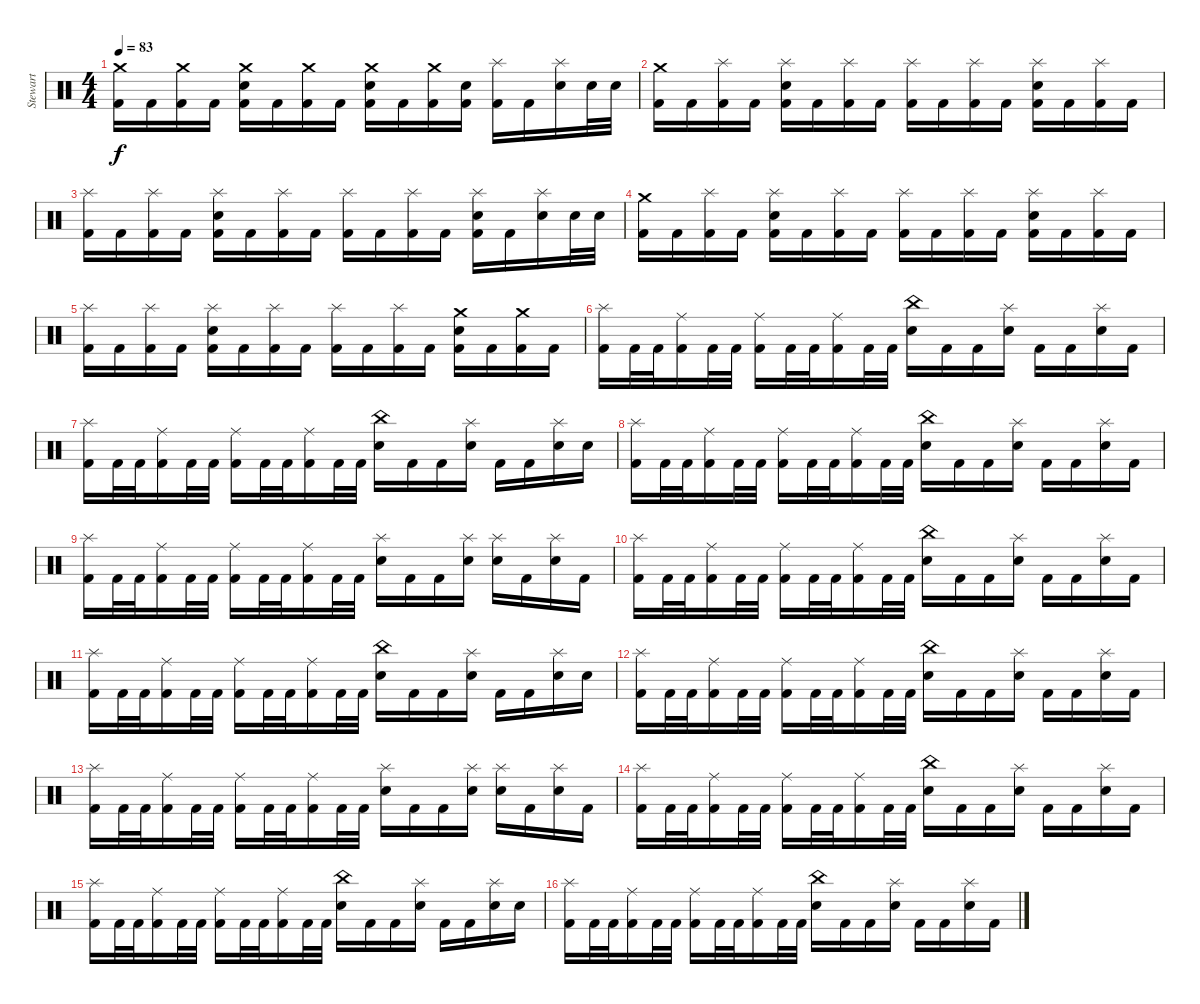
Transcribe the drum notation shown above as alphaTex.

\track ("Stewart" "Stewart") {instrument percussion}
\staff {score}
\articulation defaults
\ts (4 4)
\tempo 83
\clef neutral
\ks c
("Crash medium (hit)" "Kick (hit) 2").16{dy f} "Kick (hit) 2".16 ("Crash medium (hit)" "Kick (hit) 2").16 "Kick (hit) 2".16 ("Crash medium (hit)" "Electric Snare (hit)" "Kick (hit) 2").16 "Kick (hit) 2".16 ("Crash medium (hit)" "Kick (hit) 2").16 "Kick (hit) 2".16 ("Crash medium (hit)" "Electric Snare (hit)" "Kick (hit) 2").16 "Kick (hit) 2".16 ("Crash medium (hit)" "Kick (hit) 2").16 ("Electric Snare (hit)" "Kick (hit) 2").16 ("Splash (hit)" "Kick (hit) 2").16 "Kick (hit) 2".16 ("Splash (hit)" "Electric Snare (hit)").16 "Electric Snare (hit)".32 "Electric Snare (hit)".32 |
("Crash medium (hit)" "Kick (hit) 2").16 "Kick (hit) 2".16 ("Splash (hit)" "Kick (hit) 2").16 "Kick (hit) 2".16 ("Splash (hit)" "Electric Snare (hit)" "Kick (hit) 2").16 "Kick (hit) 2".16 ("Splash (hit)" "Kick (hit) 2").16 "Kick (hit) 2".16 ("Splash (hit)" "Kick (hit) 2").16 "Kick (hit) 2".16 ("Splash (hit)" "Kick (hit) 2").16 "Kick (hit) 2".16 ("Splash (hit)" "Electric Snare (hit)" "Kick (hit) 2").16 "Kick (hit) 2".16 ("Splash (hit)" "Kick (hit) 2").16 "Kick (hit) 2".16 |
("Splash (hit)" "Kick (hit) 2").16 "Kick (hit) 2".16 ("Splash (hit)" "Kick (hit) 2").16 "Kick (hit) 2".16 ("Splash (hit)" "Electric Snare (hit)" "Kick (hit) 2").16 "Kick (hit) 2".16 ("Splash (hit)" "Kick (hit) 2").16 "Kick (hit) 2".16 ("Splash (hit)" "Kick (hit) 2").16 "Kick (hit) 2".16 ("Splash (hit)" "Kick (hit) 2").16 "Kick (hit) 2".16 ("Splash (hit)" "Electric Snare (hit)" "Kick (hit) 2").16 "Kick (hit) 2".16 ("Splash (hit)" "Electric Snare (hit)").16 "Electric Snare (hit)".32 "Electric Snare (hit)".32 |
("Crash medium (hit)" "Kick (hit) 2").16 "Kick (hit) 2".16 ("Splash (hit)" "Kick (hit) 2").16 "Kick (hit) 2".16 ("Splash (hit)" "Electric Snare (hit)" "Kick (hit) 2").16 "Kick (hit) 2".16 ("Splash (hit)" "Kick (hit) 2").16 "Kick (hit) 2".16 ("Splash (hit)" "Kick (hit) 2").16 "Kick (hit) 2".16 ("Splash (hit)" "Kick (hit) 2").16 "Kick (hit) 2".16 ("Splash (hit)" "Electric Snare (hit)" "Kick (hit) 2").16 "Kick (hit) 2".16 ("Splash (hit)" "Kick (hit) 2").16 "Kick (hit) 2".16 |
("Splash (hit)" "Kick (hit) 2").16 "Kick (hit) 2".16 ("Splash (hit)" "Kick (hit) 2").16 "Kick (hit) 2".16 ("Splash (hit)" "Electric Snare (hit)" "Kick (hit) 2").16 "Kick (hit) 2".16 ("Splash (hit)" "Kick (hit) 2").16 "Kick (hit) 2".16 ("Splash (hit)" "Kick (hit) 2").16 "Kick (hit) 2".16 ("Splash (hit)" "Kick (hit) 2").16 "Kick (hit) 2".16 ("Crash medium (hit)" "Electric Snare (hit)" "Kick (hit) 2").16 "Kick (hit) 2".16 ("Crash medium (hit)" "Kick (hit) 2").16 "Kick (hit) 2".16 |
("Splash (hit)" "Kick (hit) 2").16 "Kick (hit) 2".32 "Kick (hit) 2".32 ("Ride (middle)" "Kick (hit) 2").16 "Kick (hit) 2".32 "Kick (hit) 2".32 ("Ride (middle)" "Kick (hit) 2").16 "Kick (hit) 2".32 "Kick (hit) 2".32 ("Ride (middle)" "Kick (hit) 2").16 "Kick (hit) 2".32 "Kick (hit) 2".32 ("China (hit)" "Electric Snare (hit)").16 "Kick (hit) 2".16 "Kick (hit) 2".16 ("Splash (hit)" "Electric Snare (hit)").16 "Kick (hit) 2".16 "Kick (hit) 2".16 ("Splash (hit)" "Electric Snare (hit)").16 "Kick (hit) 2".16 |
("Splash (hit)" "Kick (hit) 2").16 "Kick (hit) 2".32 "Kick (hit) 2".32 ("Ride (middle)" "Kick (hit) 2").16 "Kick (hit) 2".32 "Kick (hit) 2".32 ("Ride (middle)" "Kick (hit) 2").16 "Kick (hit) 2".32 "Kick (hit) 2".32 ("Ride (middle)" "Kick (hit) 2").16 "Kick (hit) 2".32 "Kick (hit) 2".32 ("China (hit)" "Electric Snare (hit)").16 "Kick (hit) 2".16 "Kick (hit) 2".16 ("Splash (hit)" "Electric Snare (hit)").16 "Kick (hit) 2".16 "Kick (hit) 2".16 ("Splash (hit)" "Electric Snare (hit)").16 "Electric Snare (hit)".16 |
("Splash (hit)" "Kick (hit) 2").16 "Kick (hit) 2".32 "Kick (hit) 2".32 ("Ride (middle)" "Kick (hit) 2").16 "Kick (hit) 2".32 "Kick (hit) 2".32 ("Ride (middle)" "Kick (hit) 2").16 "Kick (hit) 2".32 "Kick (hit) 2".32 ("Ride (middle)" "Kick (hit) 2").16 "Kick (hit) 2".32 "Kick (hit) 2".32 ("China (hit)" "Electric Snare (hit)").16 "Kick (hit) 2".16 "Kick (hit) 2".16 ("Splash (hit)" "Electric Snare (hit)").16 "Kick (hit) 2".16 "Kick (hit) 2".16 ("Splash (hit)" "Electric Snare (hit)").16 "Kick (hit) 2".16 |
("Splash (hit)" "Kick (hit) 2").16 "Kick (hit) 2".32 "Kick (hit) 2".32 ("Ride (middle)" "Kick (hit) 2").16 "Kick (hit) 2".32 "Kick (hit) 2".32 ("Ride (middle)" "Kick (hit) 2").16 "Kick (hit) 2".32 "Kick (hit) 2".32 ("Ride (middle)" "Kick (hit) 2").16 "Kick (hit) 2".32 "Kick (hit) 2".32 ("Splash (hit)" "Electric Snare (hit)").16 "Kick (hit) 2".16 "Kick (hit) 2".16 ("Splash (hit)" "Electric Snare (hit)").16 ("Splash (hit)" "Electric Snare (hit)").16 "Kick (hit) 2".16 ("Splash (hit)" "Electric Snare (hit)").16 "Kick (hit) 2".16 |
("Splash (hit)" "Kick (hit) 2").16 "Kick (hit) 2".32 "Kick (hit) 2".32 ("Ride (middle)" "Kick (hit) 2").16 "Kick (hit) 2".32 "Kick (hit) 2".32 ("Ride (middle)" "Kick (hit) 2").16 "Kick (hit) 2".32 "Kick (hit) 2".32 ("Ride (middle)" "Kick (hit) 2").16 "Kick (hit) 2".32 "Kick (hit) 2".32 ("China (hit)" "Electric Snare (hit)").16 "Kick (hit) 2".16 "Kick (hit) 2".16 ("Splash (hit)" "Electric Snare (hit)").16 "Kick (hit) 2".16 "Kick (hit) 2".16 ("Splash (hit)" "Electric Snare (hit)").16 "Kick (hit) 2".16 |
("Splash (hit)" "Kick (hit) 2").16 "Kick (hit) 2".32 "Kick (hit) 2".32 ("Ride (middle)" "Kick (hit) 2").16 "Kick (hit) 2".32 "Kick (hit) 2".32 ("Ride (middle)" "Kick (hit) 2").16 "Kick (hit) 2".32 "Kick (hit) 2".32 ("Ride (middle)" "Kick (hit) 2").16 "Kick (hit) 2".32 "Kick (hit) 2".32 ("China (hit)" "Electric Snare (hit)").16 "Kick (hit) 2".16 "Kick (hit) 2".16 ("Splash (hit)" "Electric Snare (hit)").16 "Kick (hit) 2".16 "Kick (hit) 2".16 ("Splash (hit)" "Electric Snare (hit)").16 "Electric Snare (hit)".16 |
("Splash (hit)" "Kick (hit) 2").16 "Kick (hit) 2".32 "Kick (hit) 2".32 ("Ride (middle)" "Kick (hit) 2").16 "Kick (hit) 2".32 "Kick (hit) 2".32 ("Ride (middle)" "Kick (hit) 2").16 "Kick (hit) 2".32 "Kick (hit) 2".32 ("Ride (middle)" "Kick (hit) 2").16 "Kick (hit) 2".32 "Kick (hit) 2".32 ("China (hit)" "Electric Snare (hit)").16 "Kick (hit) 2".16 "Kick (hit) 2".16 ("Splash (hit)" "Electric Snare (hit)").16 "Kick (hit) 2".16 "Kick (hit) 2".16 ("Splash (hit)" "Electric Snare (hit)").16 "Kick (hit) 2".16 |
("Splash (hit)" "Kick (hit) 2").16 "Kick (hit) 2".32 "Kick (hit) 2".32 ("Ride (middle)" "Kick (hit) 2").16 "Kick (hit) 2".32 "Kick (hit) 2".32 ("Ride (middle)" "Kick (hit) 2").16 "Kick (hit) 2".32 "Kick (hit) 2".32 ("Ride (middle)" "Kick (hit) 2").16 "Kick (hit) 2".32 "Kick (hit) 2".32 ("Splash (hit)" "Electric Snare (hit)").16 "Kick (hit) 2".16 "Kick (hit) 2".16 ("Splash (hit)" "Electric Snare (hit)").16 ("Splash (hit)" "Electric Snare (hit)").16 "Kick (hit) 2".16 ("Splash (hit)" "Electric Snare (hit)").16 "Kick (hit) 2".16 |
("Splash (hit)" "Kick (hit) 2").16 "Kick (hit) 2".32 "Kick (hit) 2".32 ("Ride (middle)" "Kick (hit) 2").16 "Kick (hit) 2".32 "Kick (hit) 2".32 ("Ride (middle)" "Kick (hit) 2").16 "Kick (hit) 2".32 "Kick (hit) 2".32 ("Ride (middle)" "Kick (hit) 2").16 "Kick (hit) 2".32 "Kick (hit) 2".32 ("China (hit)" "Electric Snare (hit)").16 "Kick (hit) 2".16 "Kick (hit) 2".16 ("Splash (hit)" "Electric Snare (hit)").16 "Kick (hit) 2".16 "Kick (hit) 2".16 ("Splash (hit)" "Electric Snare (hit)").16 "Kick (hit) 2".16 |
("Splash (hit)" "Kick (hit) 2").16 "Kick (hit) 2".32 "Kick (hit) 2".32 ("Ride (middle)" "Kick (hit) 2").16 "Kick (hit) 2".32 "Kick (hit) 2".32 ("Ride (middle)" "Kick (hit) 2").16 "Kick (hit) 2".32 "Kick (hit) 2".32 ("Ride (middle)" "Kick (hit) 2").16 "Kick (hit) 2".32 "Kick (hit) 2".32 ("China (hit)" "Electric Snare (hit)").16 "Kick (hit) 2".16 "Kick (hit) 2".16 ("Splash (hit)" "Electric Snare (hit)").16 "Kick (hit) 2".16 "Kick (hit) 2".16 ("Splash (hit)" "Electric Snare (hit)").16 "Electric Snare (hit)".16 |
("Splash (hit)" "Kick (hit) 2").16 "Kick (hit) 2".32 "Kick (hit) 2".32 ("Ride (middle)" "Kick (hit) 2").16 "Kick (hit) 2".32 "Kick (hit) 2".32 ("Ride (middle)" "Kick (hit) 2").16 "Kick (hit) 2".32 "Kick (hit) 2".32 ("Ride (middle)" "Kick (hit) 2").16 "Kick (hit) 2".32 "Kick (hit) 2".32 ("China (hit)" "Electric Snare (hit)").16 "Kick (hit) 2".16 "Kick (hit) 2".16 ("Splash (hit)" "Electric Snare (hit)").16 "Kick (hit) 2".16 "Kick (hit) 2".16 ("Splash (hit)" "Electric Snare (hit)").16 "Kick (hit) 2".16
